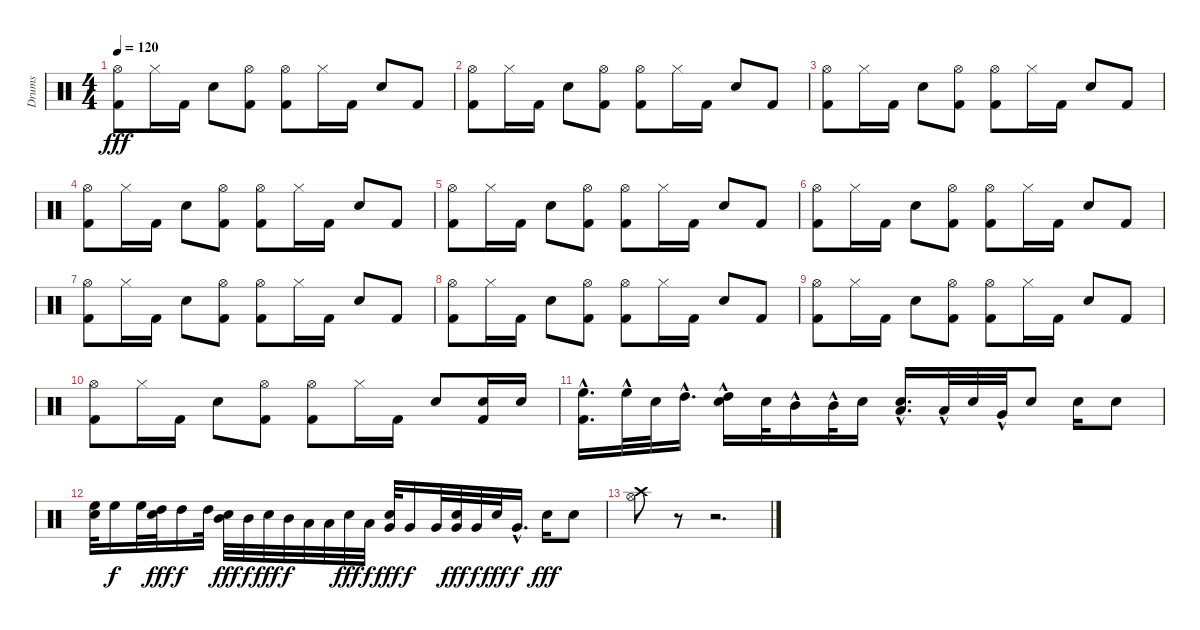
\track ("Drums" "Drums") {instrument percussion}
\staff {score}
\articulation defaults
\ts (4 4)
\tempo 120
\clef neutral
\ks c
("Hi-Hat (open)" "Kick (hit) 2").8{dy fff} "Hi-Hat (closed)".16 "Kick (hit) 2".16 "Electric Snare (hit)".8 ("Hi-Hat (open)" "Kick (hit) 2").8 ("Hi-Hat (open)" "Kick (hit) 2").8 "Hi-Hat (closed)".16 "Kick (hit) 2".16 "Electric Snare (hit)".8 "Kick (hit) 2".8 |
("Hi-Hat (open)" "Kick (hit) 2").8 "Hi-Hat (closed)".16 "Kick (hit) 2".16 "Electric Snare (hit)".8 ("Hi-Hat (open)" "Kick (hit) 2").8 ("Hi-Hat (open)" "Kick (hit) 2").8 "Hi-Hat (closed)".16 "Kick (hit) 2".16 "Electric Snare (hit)".8 "Kick (hit) 2".8 |
("Hi-Hat (open)" "Kick (hit) 2").8 "Hi-Hat (closed)".16 "Kick (hit) 2".16 "Electric Snare (hit)".8 ("Hi-Hat (open)" "Kick (hit) 2").8 ("Hi-Hat (open)" "Kick (hit) 2").8 "Hi-Hat (closed)".16 "Kick (hit) 2".16 "Electric Snare (hit)".8 "Kick (hit) 2".8 |
("Hi-Hat (open)" "Kick (hit) 2").8 "Hi-Hat (closed)".16 "Kick (hit) 2".16 "Electric Snare (hit)".8 ("Hi-Hat (open)" "Kick (hit) 2").8 ("Hi-Hat (open)" "Kick (hit) 2").8 "Hi-Hat (closed)".16 "Kick (hit) 2".16 "Electric Snare (hit)".8 "Kick (hit) 2".8 |
("Hi-Hat (open)" "Kick (hit) 2").8 "Hi-Hat (closed)".16 "Kick (hit) 2".16 "Electric Snare (hit)".8 ("Hi-Hat (open)" "Kick (hit) 2").8 ("Hi-Hat (open)" "Kick (hit) 2").8 "Hi-Hat (closed)".16 "Kick (hit) 2".16 "Electric Snare (hit)".8 "Kick (hit) 2".8 |
("Hi-Hat (open)" "Kick (hit) 2").8 "Hi-Hat (closed)".16 "Kick (hit) 2".16 "Electric Snare (hit)".8 ("Hi-Hat (open)" "Kick (hit) 2").8 ("Hi-Hat (open)" "Kick (hit) 2").8 "Hi-Hat (closed)".16 "Kick (hit) 2".16 "Electric Snare (hit)".8 "Kick (hit) 2".8 |
("Hi-Hat (open)" "Kick (hit) 2").8 "Hi-Hat (closed)".16 "Kick (hit) 2".16 "Electric Snare (hit)".8 ("Hi-Hat (open)" "Kick (hit) 2").8 ("Hi-Hat (open)" "Kick (hit) 2").8 "Hi-Hat (closed)".16 "Kick (hit) 2".16 "Electric Snare (hit)".8 "Kick (hit) 2".8 |
("Hi-Hat (open)" "Kick (hit) 2").8 "Hi-Hat (closed)".16 "Kick (hit) 2".16 "Electric Snare (hit)".8 ("Hi-Hat (open)" "Kick (hit) 2").8 ("Hi-Hat (open)" "Kick (hit) 2").8 "Hi-Hat (closed)".16 "Kick (hit) 2".16 "Electric Snare (hit)".8 "Kick (hit) 2".8 |
("Hi-Hat (open)" "Kick (hit) 2").8 "Hi-Hat (closed)".16 "Kick (hit) 2".16 "Electric Snare (hit)".8 ("Hi-Hat (open)" "Kick (hit) 2").8 ("Hi-Hat (open)" "Kick (hit) 2").8 "Hi-Hat (closed)".16 "Kick (hit) 2".16 "Electric Snare (hit)".8 "Kick (hit) 2".8 |
("Hi-Hat (open)" "Kick (hit) 2").8 "Hi-Hat (closed)".16 "Kick (hit) 2".16 "Electric Snare (hit)".8 ("Hi-Hat (open)" "Kick (hit) 2").8 ("Hi-Hat (open)" "Kick (hit) 2").8 "Hi-Hat (closed)".16 "Kick (hit) 2".16 "Electric Snare (hit)".8 ("Kick (hit) 2" "Electric Snare (hit)").16 "Electric Snare (hit)".16 |
("High Floor Tom (hit)"{hac} "Kick (hit) 2").16{d} "High Floor Tom (hit)"{hac}.32 "Electric Snare (hit)".32 "High Tom (hit)"{hac}.16{d} ("High Tom (hit)"{hac} "Electric Snare (hit)").16 "Electric Snare (hit)".32 "Mid Tom (hit)"{hac}.16 "Mid Tom (hit)"{hac}.32 "Electric Snare (hit)".16 ("Low Tom (hit)"{hac} "Electric Snare (hit)").16{d} "Low Tom (hit)"{hac}.32 "Electric Snare (hit)".32 "Very Low Tom (hit)"{hac}.32 "Electric Snare (hit)".8 "Electric Snare (hit)".16 "Electric Snare (hit)".8 |
("High Floor Tom (hit)" "Electric Snare (hit)").32 "High Floor Tom (hit)".16{dy f} "High Floor Tom (hit)".32 ("High Tom (hit)" "Electric Snare (hit)").32{dy fff} "High Tom (hit)".16{dy f} "High Tom (hit)".32 ("Mid Tom (hit)" "Electric Snare (hit)").32{dy fff} "Mid Tom (hit)".32{dy f} "Electric Snare (hit)".32{dy fff} "Mid Tom (hit)".32{dy f} "Low Tom (hit)".32 "Low Tom (hit)".32 "Electric Snare (hit)".32{dy fff} "Low Tom (hit)".32{dy f} ("Very Low Tom (hit)" "Electric Snare (hit)").32{dy fff} "Very Low Tom (hit)".16{dy f} "Very Low Tom (hit)".32 ("Very Low Tom (hit)" "Electric Snare (hit)").32{dy fff} "Very Low Tom (hit)".32{dy f} "Electric Snare (hit)".32{dy fff} "Very Low Tom (hit)"{hac}.16{d dy f} "Electric Snare (hit)".16{dy fff} "Electric Snare (hit)".8 |
("Hi-Hat (open)" "Crash high (hit)").8 r.8 r.2{d}
